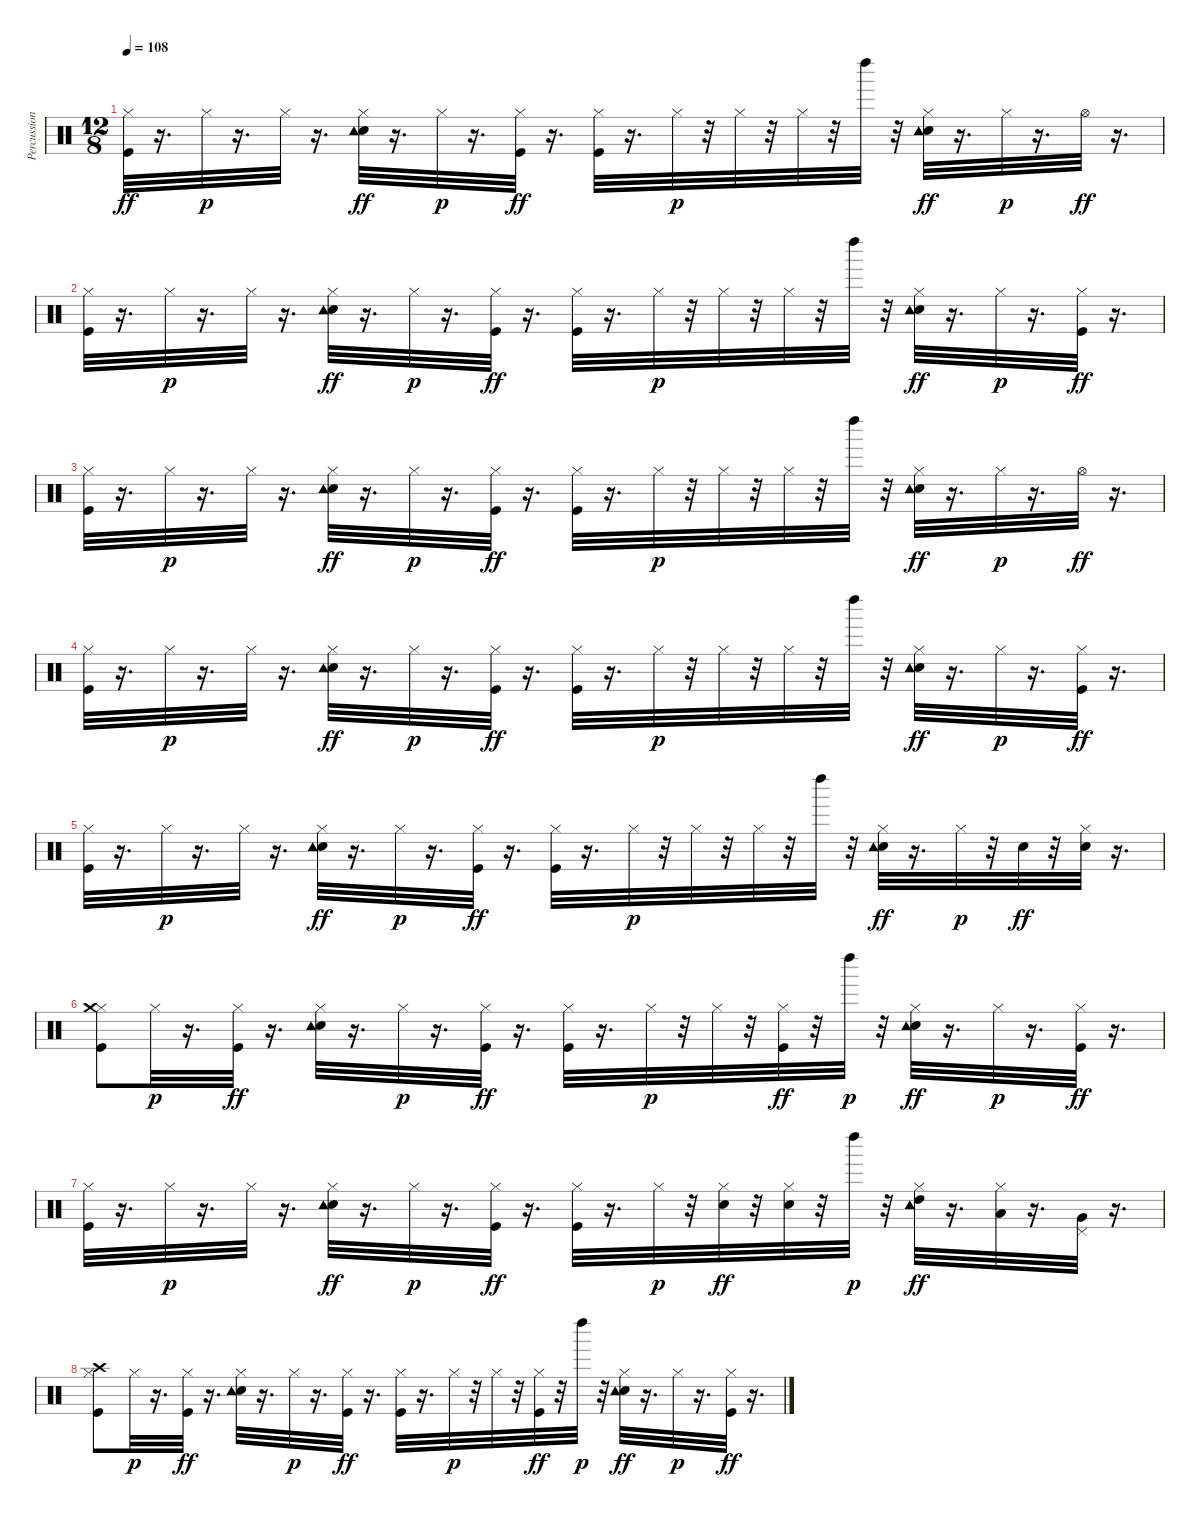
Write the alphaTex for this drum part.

\track ("Percussion" "Percussion") {instrument percussion}
\staff {score}
\articulation defaults
\ts (12 8)
\tempo 108
\clef neutral
\ks c
("Hi-Hat (closed)" "Kick (hit)").32{dy ff} r.16{d} "Hi-Hat (closed)".32{dy p} r.16{d} "Hi-Hat (closed)".32 r.16{d} ("Hi-Hat (closed)" "Snare (hit) 2" "Tambourine (hit)").32{dy ff} r.16{d} "Hi-Hat (closed)".32{dy p} r.16{d} ("Hi-Hat (closed)" "Kick (hit)").32{dy ff} r.16{d} ("Hi-Hat (closed)" "Kick (hit)").32 r.16{d} "Hi-Hat (closed)".32{dy p} r.32 "Hi-Hat (closed)".32 r.32 "Hi-Hat (closed)".32 r.32 "Left Maraca (hit)".32 r.32 ("Hi-Hat (closed)" "Snare (hit) 2" "Tambourine (hit)").32{dy ff} r.16{d} "Hi-Hat (closed)".32{dy p} r.16{d} "Hi-Hat (open)".32{dy ff} r.16{d} |
("Hi-Hat (closed)" "Kick (hit)").32 r.16{d} "Hi-Hat (closed)".32{dy p} r.16{d} "Hi-Hat (closed)".32 r.16{d} ("Hi-Hat (closed)" "Snare (hit) 2" "Tambourine (hit)").32{dy ff} r.16{d} "Hi-Hat (closed)".32{dy p} r.16{d} ("Hi-Hat (closed)" "Kick (hit)").32{dy ff} r.16{d} ("Hi-Hat (closed)" "Kick (hit)").32 r.16{d} "Hi-Hat (closed)".32{dy p} r.32 "Hi-Hat (closed)".32 r.32 "Hi-Hat (closed)".32 r.32 "Left Maraca (hit)".32 r.32 ("Hi-Hat (closed)" "Snare (hit) 2" "Tambourine (hit)").32{dy ff} r.16{d} "Hi-Hat (closed)".32{dy p} r.16{d} ("Hi-Hat (closed)" "Kick (hit)").32{dy ff} r.16{d} |
("Hi-Hat (closed)" "Kick (hit)").32 r.16{d} "Hi-Hat (closed)".32{dy p} r.16{d} "Hi-Hat (closed)".32 r.16{d} ("Hi-Hat (closed)" "Snare (hit) 2" "Tambourine (hit)").32{dy ff} r.16{d} "Hi-Hat (closed)".32{dy p} r.16{d} ("Hi-Hat (closed)" "Kick (hit)").32{dy ff} r.16{d} ("Hi-Hat (closed)" "Kick (hit)").32 r.16{d} "Hi-Hat (closed)".32{dy p} r.32 "Hi-Hat (closed)".32 r.32 "Hi-Hat (closed)".32 r.32 "Left Maraca (hit)".32 r.32 ("Hi-Hat (closed)" "Snare (hit) 2" "Tambourine (hit)").32{dy ff} r.16{d} "Hi-Hat (closed)".32{dy p} r.16{d} "Hi-Hat (open)".32{dy ff} r.16{d} |
("Hi-Hat (closed)" "Kick (hit)").32 r.16{d} "Hi-Hat (closed)".32{dy p} r.16{d} "Hi-Hat (closed)".32 r.16{d} ("Hi-Hat (closed)" "Snare (hit) 2" "Tambourine (hit)").32{dy ff} r.16{d} "Hi-Hat (closed)".32{dy p} r.16{d} ("Hi-Hat (closed)" "Kick (hit)").32{dy ff} r.16{d} ("Hi-Hat (closed)" "Kick (hit)").32 r.16{d} "Hi-Hat (closed)".32{dy p} r.32 "Hi-Hat (closed)".32 r.32 "Hi-Hat (closed)".32 r.32 "Left Maraca (hit)".32 r.32 ("Hi-Hat (closed)" "Snare (hit) 2" "Tambourine (hit)").32{dy ff} r.16{d} "Hi-Hat (closed)".32{dy p} r.16{d} ("Hi-Hat (closed)" "Kick (hit)").32{dy ff} r.16{d} |
("Hi-Hat (closed)" "Kick (hit)").32 r.16{d} "Hi-Hat (closed)".32{dy p} r.16{d} "Hi-Hat (closed)".32 r.16{d} ("Hi-Hat (closed)" "Snare (hit) 2" "Tambourine (hit)").32{dy ff} r.16{d} "Hi-Hat (closed)".32{dy p} r.16{d} ("Hi-Hat (closed)" "Kick (hit)").32{dy ff} r.16{d} ("Hi-Hat (closed)" "Kick (hit)").32 r.16{d} "Hi-Hat (closed)".32{dy p} r.32 "Hi-Hat (closed)".32 r.32 "Hi-Hat (closed)".32 r.32 "Left Maraca (hit)".32 r.32 ("Hi-Hat (closed)" "Snare (hit) 2" "Tambourine (hit)").32{dy ff} r.16{d} "Hi-Hat (closed)".32{dy p} r.32 "Snare (hit) 2".32{dy ff} r.32 ("Hi-Hat (closed)" "Snare (hit) 2").32 r.16{d} |
("Hi-Hat (closed)" "Kick (hit)" "Crash medium (hit)").8 "Hi-Hat (closed)".32{dy p} r.16{d} ("Hi-Hat (closed)" "Kick (hit)").32{dy ff} r.16{d} ("Hi-Hat (closed)" "Snare (hit) 2" "Tambourine (hit)").32 r.16{d} "Hi-Hat (closed)".32{dy p} r.16{d} ("Hi-Hat (closed)" "Kick (hit)").32{dy ff} r.16{d} ("Hi-Hat (closed)" "Kick (hit)").32 r.16{d} "Hi-Hat (closed)".32{dy p} r.32 "Hi-Hat (closed)".32 r.32 ("Hi-Hat (closed)" "Kick (hit)").32{dy ff} r.32 "Left Maraca (hit)".32{dy p} r.32 ("Hi-Hat (closed)" "Snare (hit) 2" "Tambourine (hit)").32{dy ff} r.16{d} "Hi-Hat (closed)".32{dy p} r.16{d} ("Hi-Hat (closed)" "Kick (hit)").32{dy ff} r.16{d} |
("Hi-Hat (closed)" "Kick (hit)").32 r.16{d} "Hi-Hat (closed)".32{dy p} r.16{d} "Hi-Hat (closed)".32 r.16{d} ("Hi-Hat (closed)" "Snare (hit) 2" "Tambourine (hit)").32{dy ff} r.16{d} "Hi-Hat (closed)".32{dy p} r.16{d} ("Hi-Hat (closed)" "Kick (hit)").32{dy ff} r.16{d} ("Hi-Hat (closed)" "Kick (hit)").32 r.16{d} "Hi-Hat (closed)".32{dy p} r.32 ("Hi-Hat (closed)" "Snare (hit) 2").32{dy ff} r.32 ("Hi-Hat (closed)" "Snare (hit) 2").32 r.32 "Left Maraca (hit)".32{dy p} r.32 ("Hi-Hat (closed)" "Tambourine (hit)" "High Tom (hit)").32{dy ff} r.16{d} ("Hi-Hat (closed)" "Low Tom (hit)").32 r.16{d} ("Very Low Tom (hit)" "Pedal Hi-Hat (hit)").32 r.16{d} |
("Hi-Hat (closed)" "Kick (hit)" "Crash high (hit)").8 "Hi-Hat (closed)".32{dy p} r.16{d} ("Hi-Hat (closed)" "Kick (hit)").32{dy ff} r.16{d} ("Hi-Hat (closed)" "Snare (hit) 2" "Tambourine (hit)").32 r.16{d} "Hi-Hat (closed)".32{dy p} r.16{d} ("Hi-Hat (closed)" "Kick (hit)").32{dy ff} r.16{d} ("Hi-Hat (closed)" "Kick (hit)").32 r.16{d} "Hi-Hat (closed)".32{dy p} r.32 "Hi-Hat (closed)".32 r.32 ("Hi-Hat (closed)" "Kick (hit)").32{dy ff} r.32 "Left Maraca (hit)".32{dy p} r.32 ("Hi-Hat (closed)" "Snare (hit) 2" "Tambourine (hit)").32{dy ff} r.16{d} "Hi-Hat (closed)".32{dy p} r.16{d} ("Hi-Hat (closed)" "Kick (hit)").32{dy ff} r.16{d}
